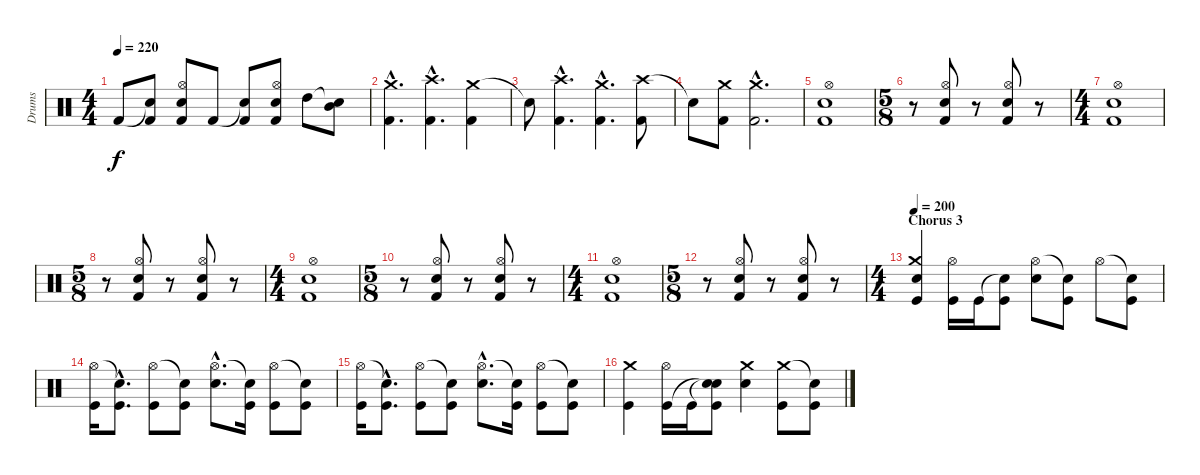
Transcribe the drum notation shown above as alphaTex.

\track ("Drums" "Drums") {instrument percussion}
\staff {score}
\articulation defaults
\ts (4 4)
\tempo 220
\clef neutral
\ks c "Kick (hit) 2".8{dy f}
("Snare (hit)"{t} "Kick (hit) 2").8 ("Hi-Hat (open)" "Electric Snare (hit)" "Kick (hit) 2").8 "Kick (hit) 2".8 ("Snare (hit)"{t} "Kick (hit) 2").8 ("Hi-Hat (open)" "Electric Snare (hit)" "Kick (hit) 2").8 "High Tom (hit)".8 ("Snare (hit)"{t} "Mid Tom (hit)").8 |
("Crash medium (hit)"{hac} "Kick (hit) 2"{hac}).4{d} ("Crash high (hit)"{hac} "Kick (hit) 2"{hac}).4{d} ("Crash medium (hit)" "Kick (hit) 2").4 |
"Snare (hit)"{t}.8 ("Crash high (hit)"{hac} "Kick (hit) 2"{hac}).4{d} ("Crash medium (hit)"{hac} "Kick (hit) 2"{hac}).4{d} ("Crash high (hit)" "Kick (hit) 2").8 |
"Snare (hit)"{t}.8 ("Crash medium (hit)" "Kick (hit) 2").8 ("Crash medium (hit)"{hac} "Kick (hit) 2"{hac}).2{d} |
("Hi-Hat (open)" "Electric Snare (hit)" "Kick (hit) 2").1 |
\ts (5 8)
r.8 ("Hi-Hat (open)" "Electric Snare (hit)" "Kick (hit) 2").8 r.8 ("Hi-Hat (open)" "Electric Snare (hit)" "Kick (hit) 2").8 r.8 |
\ts (4 4)
("Hi-Hat (open)" "Electric Snare (hit)" "Kick (hit) 2").1 |
\ts (5 8)
r.8 ("Hi-Hat (open)" "Electric Snare (hit)" "Kick (hit) 2").8 r.8 ("Hi-Hat (open)" "Electric Snare (hit)" "Kick (hit) 2").8 r.8 |
\ts (4 4)
("Hi-Hat (open)" "Electric Snare (hit)" "Kick (hit) 2").1 |
\ts (5 8)
r.8 ("Hi-Hat (open)" "Electric Snare (hit)" "Kick (hit) 2").8 r.8 ("Hi-Hat (open)" "Electric Snare (hit)" "Kick (hit) 2").8 r.8 |
\ts (4 4)
("Hi-Hat (open)" "Electric Snare (hit)" "Kick (hit) 2").1 |
\ts (5 8)
r.8 ("Hi-Hat (open)" "Electric Snare (hit)" "Kick (hit) 2").8 r.8 ("Hi-Hat (open)" "Electric Snare (hit)" "Kick (hit) 2").8 r.8 |
\ts (4 4)
\section ("" "Chorus 3")
\tempo 200
("Crash medium (hit)" "Electric Snare (hit)" "Kick (hit)").4 ("Hi-Hat (open)" "Kick (hit)").16 "Kick (hit)".16 ("Snare (hit)"{t} "Kick (hit)").8 ("Hi-Hat (open)" "Electric Snare (hit)").8 ("Snare (hit)"{t} "Kick (hit)").8 "Hi-Hat (open)".8 ("Snare (hit)"{t} "Kick (hit)").8 |
("Hi-Hat (open)" "Kick (hit)").16 ("Snare (hit)"{hac t} "Kick (hit)"{hac}).8{d} ("Hi-Hat (open)" "Kick (hit)").8 ("Snare (hit)"{t} "Kick (hit)").8 ("Hi-Hat (open)"{hac} "Electric Snare (hit)"{hac}).8{d} ("Snare (hit)"{t} "Kick (hit)").16 ("Hi-Hat (open)" "Kick (hit)").8 ("Snare (hit)"{t} "Kick (hit)").8 |
("Hi-Hat (open)" "Kick (hit)").16 ("Snare (hit)"{hac t} "Kick (hit)"{hac}).8{d} ("Hi-Hat (open)" "Kick (hit)").8 ("Snare (hit)"{t} "Kick (hit)").8 ("Hi-Hat (open)"{hac} "Electric Snare (hit)"{hac}).8{d} ("Snare (hit)"{t} "Kick (hit)").16 ("Hi-Hat (open)" "Kick (hit)").8 ("Snare (hit)"{t} "Kick (hit)").8 |
("Crash medium (hit)" "Kick (hit)").4 ("Hi-Hat (open)" "Kick (hit)").16 "Kick (hit)".16 ("Snare (hit)"{t} "Snare (hit)"{t} "Kick (hit)").8 ("Crash medium (hit)" "Electric Snare (hit)").4 ("Crash medium (hit)" "Kick (hit)").8 ("Snare (hit)"{t} "Kick (hit)").8
